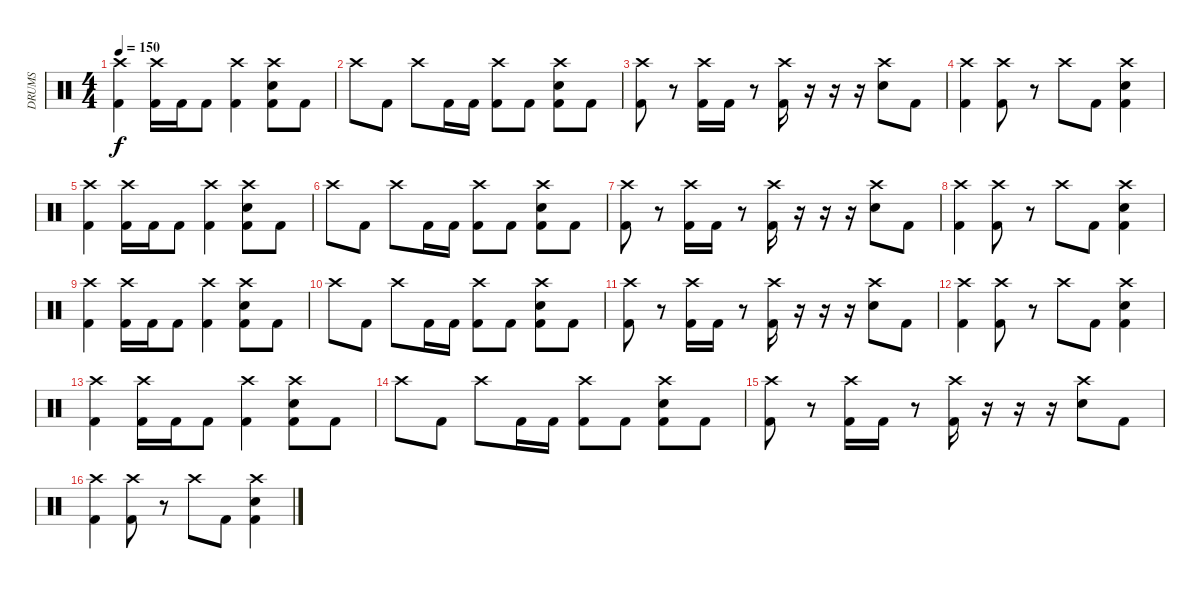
\track ("DRUMS" "DRUMS") {instrument percussion}
\staff {score}
\articulation defaults
\ts (4 4)
\tempo 150
\clef neutral
\ks c
("Crash high (hit)" "Kick (hit) 2").4{dy f} ("Crash high (hit)" "Kick (hit) 2").16 "Kick (hit) 2".16 "Kick (hit) 2".8 ("Crash high (hit)" "Kick (hit) 2").4 ("Crash high (hit)" "Electric Snare (hit)" "Kick (hit) 2").8 "Kick (hit) 2".8 |
"Crash high (hit)".8 "Kick (hit) 2".8 "Crash high (hit)".8 "Kick (hit) 2".16 "Kick (hit) 2".16 ("Crash high (hit)" "Kick (hit) 2").8 "Kick (hit) 2".8 ("Crash high (hit)" "Electric Snare (hit)" "Kick (hit) 2").8 "Kick (hit) 2".8 |
("Crash high (hit)" "Kick (hit) 2").8 r.8 ("Crash high (hit)" "Kick (hit) 2").16 "Kick (hit) 2".16 r.8 ("Crash high (hit)" "Kick (hit) 2").16 r.16 r.16 r.16 ("Crash high (hit)" "Electric Snare (hit)").8 "Kick (hit) 2".8 |
("Crash high (hit)" "Kick (hit) 2").4 ("Crash high (hit)" "Kick (hit) 2").8 r.8 "Crash high (hit)".8 "Kick (hit) 2".8 ("Crash high (hit)" "Electric Snare (hit)" "Kick (hit) 2").4 |
("Crash high (hit)" "Kick (hit) 2").4 ("Crash high (hit)" "Kick (hit) 2").16 "Kick (hit) 2".16 "Kick (hit) 2".8 ("Crash high (hit)" "Kick (hit) 2").4 ("Crash high (hit)" "Electric Snare (hit)" "Kick (hit) 2").8 "Kick (hit) 2".8 |
"Crash high (hit)".8 "Kick (hit) 2".8 "Crash high (hit)".8 "Kick (hit) 2".16 "Kick (hit) 2".16 ("Crash high (hit)" "Kick (hit) 2").8 "Kick (hit) 2".8 ("Crash high (hit)" "Electric Snare (hit)" "Kick (hit) 2").8 "Kick (hit) 2".8 |
("Crash high (hit)" "Kick (hit) 2").8 r.8 ("Crash high (hit)" "Kick (hit) 2").16 "Kick (hit) 2".16 r.8 ("Crash high (hit)" "Kick (hit) 2").16 r.16 r.16 r.16 ("Crash high (hit)" "Electric Snare (hit)").8 "Kick (hit) 2".8 |
("Crash high (hit)" "Kick (hit) 2").4 ("Crash high (hit)" "Kick (hit) 2").8 r.8 "Crash high (hit)".8 "Kick (hit) 2".8 ("Crash high (hit)" "Electric Snare (hit)" "Kick (hit) 2").4 |
("Crash high (hit)" "Kick (hit) 2").4 ("Crash high (hit)" "Kick (hit) 2").16 "Kick (hit) 2".16 "Kick (hit) 2".8 ("Crash high (hit)" "Kick (hit) 2").4 ("Crash high (hit)" "Electric Snare (hit)" "Kick (hit) 2").8 "Kick (hit) 2".8 |
"Crash high (hit)".8 "Kick (hit) 2".8 "Crash high (hit)".8 "Kick (hit) 2".16 "Kick (hit) 2".16 ("Crash high (hit)" "Kick (hit) 2").8 "Kick (hit) 2".8 ("Crash high (hit)" "Electric Snare (hit)" "Kick (hit) 2").8 "Kick (hit) 2".8 |
("Crash high (hit)" "Kick (hit) 2").8 r.8 ("Crash high (hit)" "Kick (hit) 2").16 "Kick (hit) 2".16 r.8 ("Crash high (hit)" "Kick (hit) 2").16 r.16 r.16 r.16 ("Crash high (hit)" "Electric Snare (hit)").8 "Kick (hit) 2".8 |
("Crash high (hit)" "Kick (hit) 2").4 ("Crash high (hit)" "Kick (hit) 2").8 r.8 "Crash high (hit)".8 "Kick (hit) 2".8 ("Crash high (hit)" "Electric Snare (hit)" "Kick (hit) 2").4 |
("Crash high (hit)" "Kick (hit) 2").4 ("Crash high (hit)" "Kick (hit) 2").16 "Kick (hit) 2".16 "Kick (hit) 2".8 ("Crash high (hit)" "Kick (hit) 2").4 ("Crash high (hit)" "Electric Snare (hit)" "Kick (hit) 2").8 "Kick (hit) 2".8 |
"Crash high (hit)".8 "Kick (hit) 2".8 "Crash high (hit)".8 "Kick (hit) 2".16 "Kick (hit) 2".16 ("Crash high (hit)" "Kick (hit) 2").8 "Kick (hit) 2".8 ("Crash high (hit)" "Electric Snare (hit)" "Kick (hit) 2").8 "Kick (hit) 2".8 |
("Crash high (hit)" "Kick (hit) 2").8 r.8 ("Crash high (hit)" "Kick (hit) 2").16 "Kick (hit) 2".16 r.8 ("Crash high (hit)" "Kick (hit) 2").16 r.16 r.16 r.16 ("Crash high (hit)" "Electric Snare (hit)").8 "Kick (hit) 2".8 |
("Crash high (hit)" "Kick (hit) 2").4 ("Crash high (hit)" "Kick (hit) 2").8 r.8 "Crash high (hit)".8 "Kick (hit) 2".8 ("Crash high (hit)" "Electric Snare (hit)" "Kick (hit) 2").4
